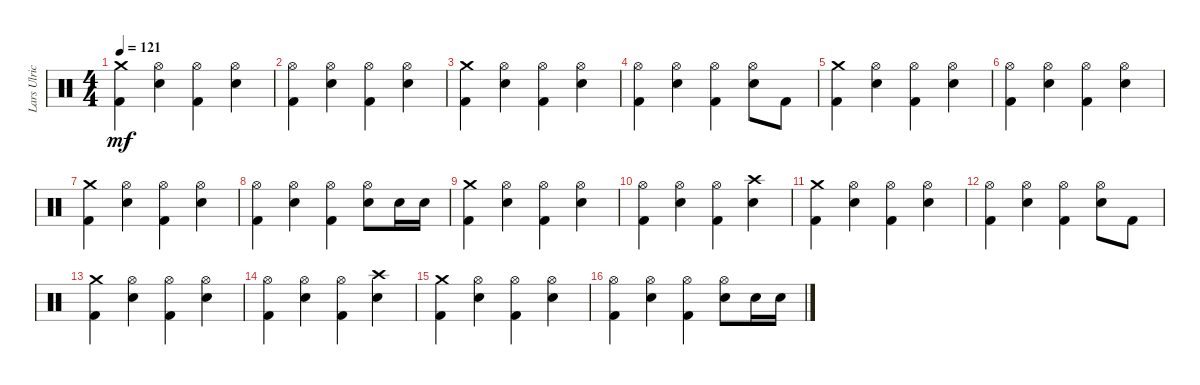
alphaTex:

\track ("Lars Ulrich" "Lars Ulric") {instrument percussion}
\staff {score}
\articulation defaults
\ts (4 4)
\tempo 121
\clef neutral
\ks c
("Kick (hit) 2" "Crash medium (hit)").4{dy mf} ("Hi-Hat (open)" "Snare (hit) 2").4 ("Hi-Hat (open)" "Kick (hit) 2").4 ("Hi-Hat (open)" "Snare (hit) 2").4 |
("Hi-Hat (open)" "Kick (hit) 2").4 ("Hi-Hat (open)" "Snare (hit) 2").4 ("Hi-Hat (open)" "Kick (hit) 2").4 ("Hi-Hat (open)" "Snare (hit) 2").4 |
("Kick (hit) 2" "Crash medium (hit)").4 ("Hi-Hat (open)" "Snare (hit) 2").4 ("Hi-Hat (open)" "Kick (hit) 2").4 ("Hi-Hat (open)" "Snare (hit) 2").4 |
("Hi-Hat (open)" "Kick (hit) 2").4 ("Hi-Hat (open)" "Snare (hit) 2").4 ("Hi-Hat (open)" "Kick (hit) 2").4 ("Hi-Hat (open)" "Snare (hit) 2").8 "Kick (hit) 2".8 |
("Kick (hit) 2" "Crash medium (hit)").4 ("Hi-Hat (open)" "Snare (hit) 2").4 ("Hi-Hat (open)" "Kick (hit) 2").4 ("Hi-Hat (open)" "Snare (hit) 2").4 |
("Hi-Hat (open)" "Kick (hit) 2").4 ("Hi-Hat (open)" "Snare (hit) 2").4 ("Hi-Hat (open)" "Kick (hit) 2").4 ("Hi-Hat (open)" "Snare (hit) 2").4 |
("Kick (hit) 2" "Crash medium (hit)").4 ("Hi-Hat (open)" "Snare (hit) 2").4 ("Hi-Hat (open)" "Kick (hit) 2").4 ("Hi-Hat (open)" "Snare (hit) 2").4 |
("Hi-Hat (open)" "Kick (hit) 2").4 ("Hi-Hat (open)" "Snare (hit) 2").4 ("Hi-Hat (open)" "Kick (hit) 2").4 ("Hi-Hat (open)" "Snare (hit) 2").8 "Snare (hit) 2".16 "Snare (hit) 2".16 |
("Kick (hit) 2" "Crash medium (hit)").4 ("Hi-Hat (open)" "Snare (hit) 2").4 ("Hi-Hat (open)" "Kick (hit) 2").4 ("Hi-Hat (open)" "Snare (hit) 2").4 |
("Hi-Hat (open)" "Kick (hit) 2").4 ("Hi-Hat (open)" "Snare (hit) 2").4 ("Hi-Hat (open)" "Kick (hit) 2").4 ("Snare (hit) 2" "Crash high (hit)").4 |
("Kick (hit) 2" "Crash medium (hit)").4 ("Hi-Hat (open)" "Snare (hit) 2").4 ("Hi-Hat (open)" "Kick (hit) 2").4 ("Hi-Hat (open)" "Snare (hit) 2").4 |
("Hi-Hat (open)" "Kick (hit) 2").4 ("Hi-Hat (open)" "Snare (hit) 2").4 ("Hi-Hat (open)" "Kick (hit) 2").4 ("Hi-Hat (open)" "Snare (hit) 2").8 "Kick (hit) 2".8 |
("Kick (hit) 2" "Crash medium (hit)").4 ("Hi-Hat (open)" "Snare (hit) 2").4 ("Hi-Hat (open)" "Kick (hit) 2").4 ("Hi-Hat (open)" "Snare (hit) 2").4 |
("Hi-Hat (open)" "Kick (hit) 2").4 ("Hi-Hat (open)" "Snare (hit) 2").4 ("Hi-Hat (open)" "Kick (hit) 2").4 ("Snare (hit) 2" "Crash high (hit)").4 |
("Kick (hit) 2" "Crash medium (hit)").4 ("Hi-Hat (open)" "Snare (hit) 2").4 ("Hi-Hat (open)" "Kick (hit) 2").4 ("Hi-Hat (open)" "Snare (hit) 2").4 |
("Hi-Hat (open)" "Kick (hit) 2").4 ("Hi-Hat (open)" "Snare (hit) 2").4 ("Hi-Hat (open)" "Kick (hit) 2").4 ("Hi-Hat (open)" "Snare (hit) 2").8 "Snare (hit) 2".16 "Snare (hit) 2".16
